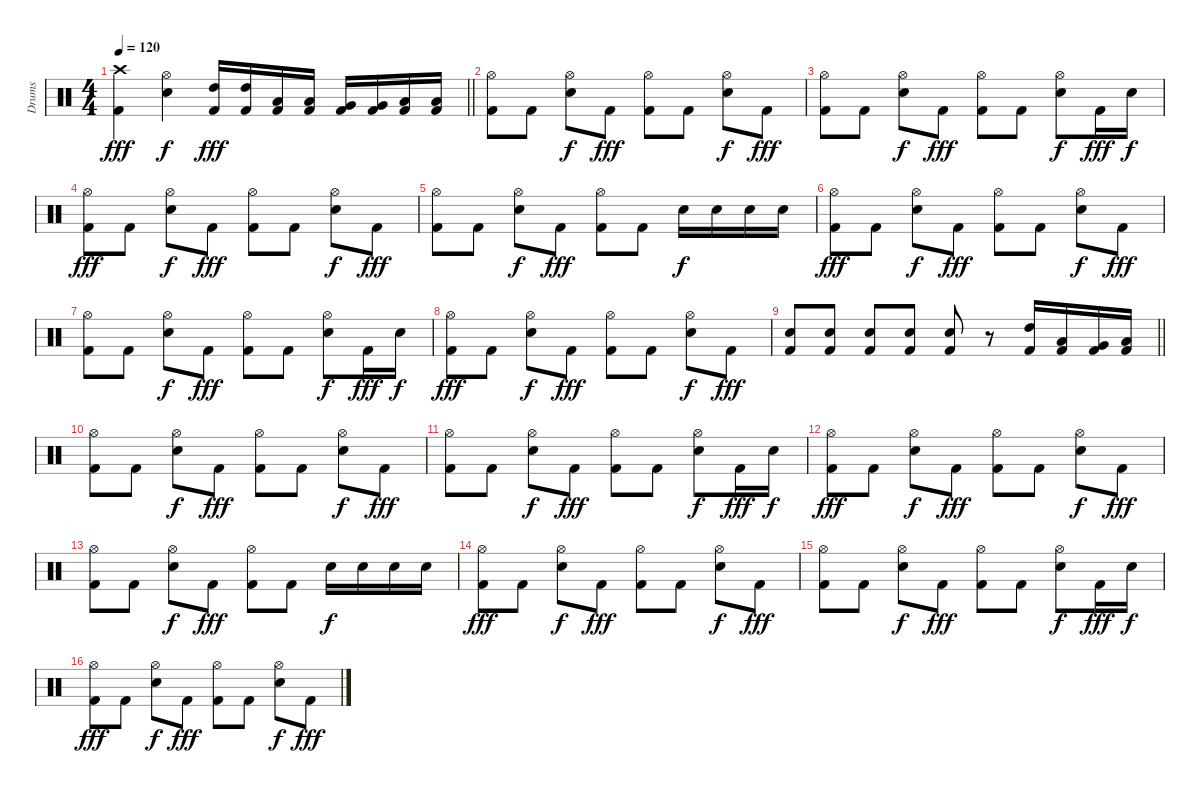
\track ("Drums" "Drums") {instrument percussion}
\staff {score}
\articulation defaults
\ts (4 4)
\tempo 120
\clef neutral
\barLineRight lightlight
\ks c
("Crash high (hit)" "Kick (hit) 2").4{dy fff} ("Hi-Hat (open)" "Snare (hit) 2").4{dy f} ("High Tom (hit)" "Kick (hit) 2").16{dy fff} ("High Tom (hit)" "Kick (hit) 2").16 ("Low Tom (hit)" "Kick (hit) 2").16 ("Low Tom (hit)" "Kick (hit) 2").16 ("Very Low Tom (hit)" "Kick (hit) 2").16 ("Very Low Tom (hit)" "Kick (hit) 2").16 ("Low Floor Tom (hit)" "Kick (hit) 2").16 ("Low Floor Tom (hit)" "Kick (hit) 2").16 |
\section ("" "")
("Hi-Hat (open)" "Kick (hit) 2").8 "Kick (hit) 2".8 ("Hi-Hat (open)" "Snare (hit) 2").8{dy f} "Kick (hit) 2".8{dy fff} ("Hi-Hat (open)" "Kick (hit) 2").8 "Kick (hit) 2".8 ("Hi-Hat (open)" "Snare (hit) 2").8{dy f} "Kick (hit) 2".8{dy fff} |
("Hi-Hat (open)" "Kick (hit) 2").8 "Kick (hit) 2".8 ("Hi-Hat (open)" "Snare (hit) 2").8{dy f} "Kick (hit) 2".8{dy fff} ("Hi-Hat (open)" "Kick (hit) 2").8 "Kick (hit) 2".8 ("Hi-Hat (open)" "Snare (hit) 2").8{dy f} "Kick (hit) 2".16{dy fff} "Snare (hit) 2".16{dy f} |
("Hi-Hat (open)" "Kick (hit) 2").8{dy fff} "Kick (hit) 2".8 ("Hi-Hat (open)" "Snare (hit) 2").8{dy f} "Kick (hit) 2".8{dy fff} ("Hi-Hat (open)" "Kick (hit) 2").8 "Kick (hit) 2".8 ("Hi-Hat (open)" "Snare (hit) 2").8{dy f} "Kick (hit) 2".8{dy fff} |
("Hi-Hat (open)" "Kick (hit) 2").8 "Kick (hit) 2".8 ("Hi-Hat (open)" "Snare (hit) 2").8{dy f} "Kick (hit) 2".8{dy fff} ("Hi-Hat (open)" "Kick (hit) 2").8 "Kick (hit) 2".8 "Snare (hit) 2".16{dy f} "Snare (hit) 2".16 "Snare (hit) 2".16 "Snare (hit) 2".16 |
("Hi-Hat (open)" "Kick (hit) 2").8{dy fff} "Kick (hit) 2".8 ("Hi-Hat (open)" "Snare (hit) 2").8{dy f} "Kick (hit) 2".8{dy fff} ("Hi-Hat (open)" "Kick (hit) 2").8 "Kick (hit) 2".8 ("Hi-Hat (open)" "Snare (hit) 2").8{dy f} "Kick (hit) 2".8{dy fff} |
("Hi-Hat (open)" "Kick (hit) 2").8 "Kick (hit) 2".8 ("Hi-Hat (open)" "Snare (hit) 2").8{dy f} "Kick (hit) 2".8{dy fff} ("Hi-Hat (open)" "Kick (hit) 2").8 "Kick (hit) 2".8 ("Hi-Hat (open)" "Snare (hit) 2").8{dy f} "Kick (hit) 2".16{dy fff} "Snare (hit) 2".16{dy f} |
("Hi-Hat (open)" "Kick (hit) 2").8{dy fff} "Kick (hit) 2".8 ("Hi-Hat (open)" "Snare (hit) 2").8{dy f} "Kick (hit) 2".8{dy fff} ("Hi-Hat (open)" "Kick (hit) 2").8 "Kick (hit) 2".8 ("Hi-Hat (open)" "Snare (hit) 2").8{dy f} "Kick (hit) 2".8{dy fff} |
\barLineRight lightlight
("Snare (hit) 2" "Kick (hit) 2").8 ("Snare (hit) 2" "Kick (hit) 2").8 ("Snare (hit) 2" "Kick (hit) 2").8 ("Snare (hit) 2" "Kick (hit) 2").8 ("Snare (hit) 2" "Kick (hit) 2").8 r.8 ("High Tom (hit)" "Kick (hit) 2").16 ("Low Tom (hit)" "Kick (hit) 2").16 ("Very Low Tom (hit)" "Kick (hit) 2").16 ("Low Floor Tom (hit)" "Kick (hit) 2").16 |
\section ("" "")
("Hi-Hat (open)" "Kick (hit) 2").8 "Kick (hit) 2".8 ("Hi-Hat (open)" "Snare (hit) 2").8{dy f} "Kick (hit) 2".8{dy fff} ("Hi-Hat (open)" "Kick (hit) 2").8 "Kick (hit) 2".8 ("Hi-Hat (open)" "Snare (hit) 2").8{dy f} "Kick (hit) 2".8{dy fff} |
("Hi-Hat (open)" "Kick (hit) 2").8 "Kick (hit) 2".8 ("Hi-Hat (open)" "Snare (hit) 2").8{dy f} "Kick (hit) 2".8{dy fff} ("Hi-Hat (open)" "Kick (hit) 2").8 "Kick (hit) 2".8 ("Hi-Hat (open)" "Snare (hit) 2").8{dy f} "Kick (hit) 2".16{dy fff} "Snare (hit) 2".16{dy f} |
("Hi-Hat (open)" "Kick (hit) 2").8{dy fff} "Kick (hit) 2".8 ("Hi-Hat (open)" "Snare (hit) 2").8{dy f} "Kick (hit) 2".8{dy fff} ("Hi-Hat (open)" "Kick (hit) 2").8 "Kick (hit) 2".8 ("Hi-Hat (open)" "Snare (hit) 2").8{dy f} "Kick (hit) 2".8{dy fff} |
("Hi-Hat (open)" "Kick (hit) 2").8 "Kick (hit) 2".8 ("Hi-Hat (open)" "Snare (hit) 2").8{dy f} "Kick (hit) 2".8{dy fff} ("Hi-Hat (open)" "Kick (hit) 2").8 "Kick (hit) 2".8 "Snare (hit) 2".16{dy f} "Snare (hit) 2".16 "Snare (hit) 2".16 "Snare (hit) 2".16 |
("Hi-Hat (open)" "Kick (hit) 2").8{dy fff} "Kick (hit) 2".8 ("Hi-Hat (open)" "Snare (hit) 2").8{dy f} "Kick (hit) 2".8{dy fff} ("Hi-Hat (open)" "Kick (hit) 2").8 "Kick (hit) 2".8 ("Hi-Hat (open)" "Snare (hit) 2").8{dy f} "Kick (hit) 2".8{dy fff} |
("Hi-Hat (open)" "Kick (hit) 2").8 "Kick (hit) 2".8 ("Hi-Hat (open)" "Snare (hit) 2").8{dy f} "Kick (hit) 2".8{dy fff} ("Hi-Hat (open)" "Kick (hit) 2").8 "Kick (hit) 2".8 ("Hi-Hat (open)" "Snare (hit) 2").8{dy f} "Kick (hit) 2".16{dy fff} "Snare (hit) 2".16{dy f} |
("Hi-Hat (open)" "Kick (hit) 2").8{dy fff} "Kick (hit) 2".8 ("Hi-Hat (open)" "Snare (hit) 2").8{dy f} "Kick (hit) 2".8{dy fff} ("Hi-Hat (open)" "Kick (hit) 2").8 "Kick (hit) 2".8 ("Hi-Hat (open)" "Snare (hit) 2").8{dy f} "Kick (hit) 2".8{dy fff}
